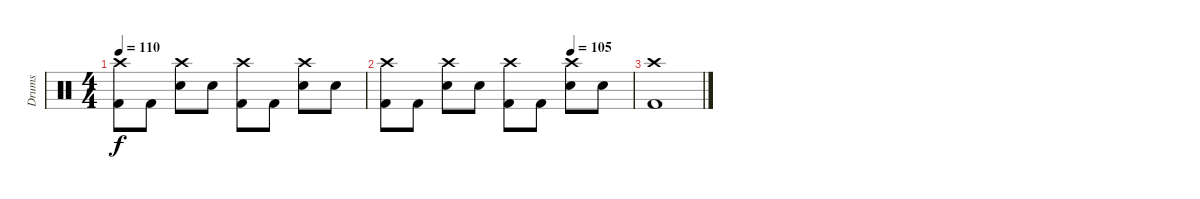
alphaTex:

\track ("Drums" "Drums") {instrument percussion}
\staff {score}
\articulation defaults
\ts (4 4)
\tempo 110
\clef neutral
\ks c
("Crash high (hit)" "Kick (hit) 2").8{dy f} "Kick (hit) 2".8 ("Crash high (hit)" "Snare (hit) 2").8 "Snare (hit) 2".8 ("Crash high (hit)" "Kick (hit) 2").8 "Kick (hit) 2".8 ("Crash high (hit)" "Snare (hit) 2").8 "Snare (hit) 2".8 |
\tempo (105 0.75)
("Crash high (hit)" "Kick (hit) 2").8 "Kick (hit) 2".8 ("Crash high (hit)" "Snare (hit) 2").8 "Snare (hit) 2".8 ("Crash high (hit)" "Kick (hit) 2").8 "Kick (hit) 2".8 ("Crash high (hit)" "Snare (hit) 2").8 "Snare (hit) 2".8 |
("Crash high (hit)" "Kick (hit) 2").1
